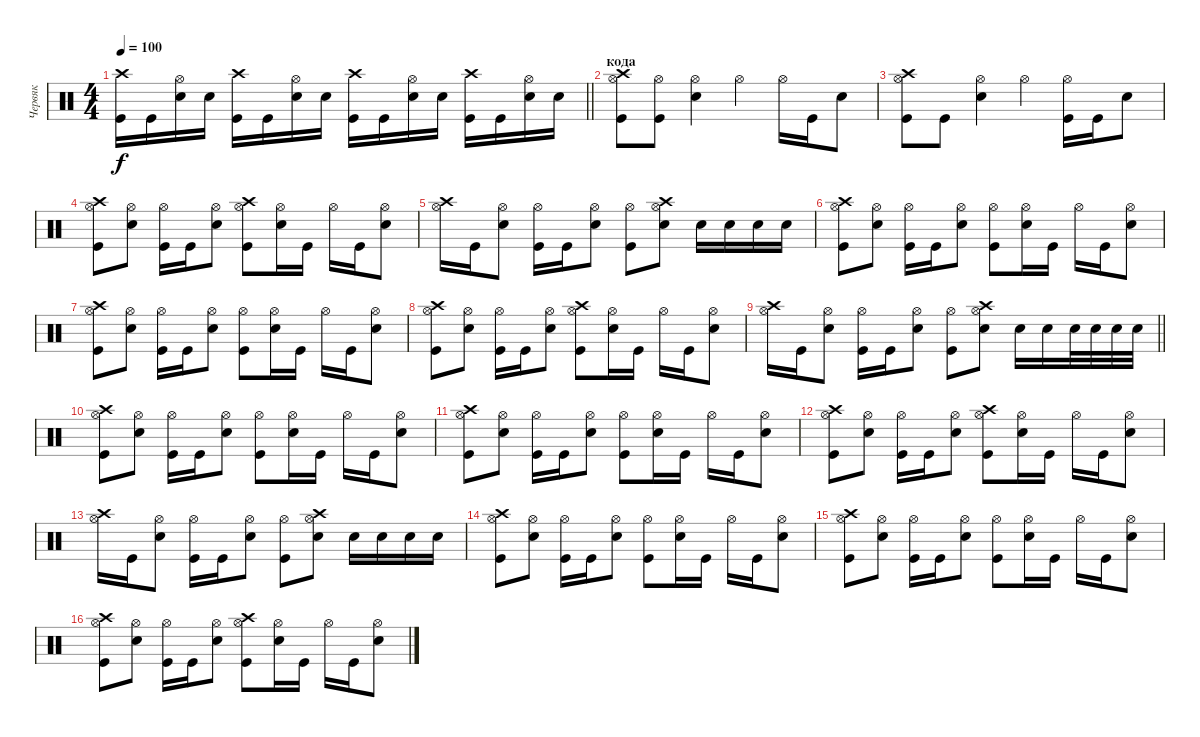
\track ("Червяк" "Червяк") {instrument percussion}
\staff {score}
\articulation defaults
\ts (4 4)
\tempo 100
\clef neutral
\barLineRight lightlight
\ks c
("Crash high (hit)" "Kick (hit)").16{dy f} "Kick (hit)".16 ("Hi-Hat (open)" "Electric Snare (hit)").16 "Electric Snare (hit)".16 ("Crash high (hit)" "Kick (hit)").16 "Kick (hit)".16 ("Hi-Hat (open)" "Electric Snare (hit)").16 "Electric Snare (hit)".16 ("Crash high (hit)" "Kick (hit)").16 "Kick (hit)".16 ("Hi-Hat (open)" "Electric Snare (hit)").16 "Electric Snare (hit)".16 ("Crash high (hit)" "Kick (hit)").16 "Kick (hit)".16 ("Hi-Hat (open)" "Electric Snare (hit)").16 "Electric Snare (hit)".16 |
\section ("" "кода")
("Hi-Hat (open)" "Crash high (hit)" "Kick (hit)").8 ("Hi-Hat (open)" "Kick (hit)").8 ("Hi-Hat (open)" "Electric Snare (hit)").4 "Hi-Hat (open)".4 "Hi-Hat (open)".16 "Kick (hit)".16 "Electric Snare (hit)".8 |
("Hi-Hat (open)" "Crash high (hit)" "Kick (hit)").8 "Kick (hit)".8 ("Hi-Hat (open)" "Electric Snare (hit)").4 "Hi-Hat (open)".4 ("Hi-Hat (open)" "Kick (hit)").16 "Kick (hit)".16 "Electric Snare (hit)".8 |
("Hi-Hat (open)" "Crash high (hit)" "Kick (hit)").8 ("Hi-Hat (open)" "Electric Snare (hit)").8 ("Hi-Hat (open)" "Kick (hit)").16 "Kick (hit)".16 ("Hi-Hat (open)" "Electric Snare (hit)").8 ("Hi-Hat (open)" "Crash high (hit)" "Kick (hit)").8 ("Hi-Hat (open)" "Electric Snare (hit)").16 "Kick (hit)".16 "Hi-Hat (open)".16 "Kick (hit)".16 ("Hi-Hat (open)" "Electric Snare (hit)").8 |
("Hi-Hat (open)" "Crash high (hit)").16 "Kick (hit)".16 ("Hi-Hat (open)" "Electric Snare (hit)").8 ("Hi-Hat (open)" "Kick (hit)").16 "Kick (hit)".16 ("Hi-Hat (open)" "Electric Snare (hit)").8 ("Hi-Hat (open)" "Kick (hit)").8 ("Hi-Hat (open)" "Crash high (hit)" "Electric Snare (hit)").8 "Snare (hit) 2".16 "Electric Snare (hit)".16 "Electric Snare (hit)".16 "Electric Snare (hit)".16 |
("Hi-Hat (open)" "Crash high (hit)" "Kick (hit)").8 ("Hi-Hat (open)" "Electric Snare (hit)").8 ("Hi-Hat (open)" "Kick (hit)").16 "Kick (hit)".16 ("Hi-Hat (open)" "Electric Snare (hit)").8 ("Hi-Hat (open)" "Kick (hit)").8 ("Hi-Hat (open)" "Electric Snare (hit)").16 "Kick (hit)".16 "Hi-Hat (open)".16 "Kick (hit)".16 ("Hi-Hat (open)" "Electric Snare (hit)").8 |
("Hi-Hat (open)" "Crash high (hit)" "Kick (hit)").8 ("Hi-Hat (open)" "Electric Snare (hit)").8 ("Hi-Hat (open)" "Kick (hit)").16 "Kick (hit)".16 ("Hi-Hat (open)" "Electric Snare (hit)").8 ("Hi-Hat (open)" "Kick (hit)").8 ("Hi-Hat (open)" "Electric Snare (hit)").16 "Kick (hit)".16 "Hi-Hat (open)".16 "Kick (hit)".16 ("Hi-Hat (open)" "Electric Snare (hit)").8 |
("Hi-Hat (open)" "Crash high (hit)" "Kick (hit)").8 ("Hi-Hat (open)" "Electric Snare (hit)").8 ("Hi-Hat (open)" "Kick (hit)").16 "Kick (hit)".16 ("Hi-Hat (open)" "Electric Snare (hit)").8 ("Hi-Hat (open)" "Crash high (hit)" "Kick (hit)").8 ("Hi-Hat (open)" "Electric Snare (hit)").16 "Kick (hit)".16 "Hi-Hat (open)".16 "Kick (hit)".16 ("Hi-Hat (open)" "Electric Snare (hit)").8 |
\barLineRight lightlight
("Hi-Hat (open)" "Crash high (hit)").16 "Kick (hit)".16 ("Hi-Hat (open)" "Electric Snare (hit)").8 ("Hi-Hat (open)" "Kick (hit)").16 "Kick (hit)".16 ("Hi-Hat (open)" "Electric Snare (hit)").8 ("Hi-Hat (open)" "Kick (hit)").8 ("Hi-Hat (open)" "Crash high (hit)" "Electric Snare (hit)").8 "Electric Snare (hit)".16 "Electric Snare (hit)".16 "Electric Snare (hit)".32 "Electric Snare (hit)".32 "Electric Snare (hit)".32 "Electric Snare (hit)".32 |
("Hi-Hat (open)" "Crash high (hit)" "Kick (hit)").8 ("Hi-Hat (open)" "Electric Snare (hit)").8 ("Hi-Hat (open)" "Kick (hit)").16 "Kick (hit)".16 ("Hi-Hat (open)" "Electric Snare (hit)").8 ("Hi-Hat (open)" "Kick (hit)").8 ("Hi-Hat (open)" "Electric Snare (hit)").16 "Kick (hit)".16 "Hi-Hat (open)".16 "Kick (hit)".16 ("Hi-Hat (open)" "Electric Snare (hit)").8 |
("Hi-Hat (open)" "Crash high (hit)" "Kick (hit)").8 ("Hi-Hat (open)" "Electric Snare (hit)").8 ("Hi-Hat (open)" "Kick (hit)").16 "Kick (hit)".16 ("Hi-Hat (open)" "Electric Snare (hit)").8 ("Hi-Hat (open)" "Kick (hit)").8 ("Hi-Hat (open)" "Electric Snare (hit)").16 "Kick (hit)".16 "Hi-Hat (open)".16 "Kick (hit)".16 ("Hi-Hat (open)" "Electric Snare (hit)").8 |
("Hi-Hat (open)" "Crash high (hit)" "Kick (hit)").8 ("Hi-Hat (open)" "Electric Snare (hit)").8 ("Hi-Hat (open)" "Kick (hit)").16 "Kick (hit)".16 ("Hi-Hat (open)" "Electric Snare (hit)").8 ("Hi-Hat (open)" "Crash high (hit)" "Kick (hit)").8 ("Hi-Hat (open)" "Electric Snare (hit)").16 "Kick (hit)".16 "Hi-Hat (open)".16 "Kick (hit)".16 ("Hi-Hat (open)" "Electric Snare (hit)").8 |
("Hi-Hat (open)" "Crash high (hit)").16 "Kick (hit)".16 ("Hi-Hat (open)" "Electric Snare (hit)").8 ("Hi-Hat (open)" "Kick (hit)").16 "Kick (hit)".16 ("Hi-Hat (open)" "Electric Snare (hit)").8 ("Hi-Hat (open)" "Kick (hit)").8 ("Hi-Hat (open)" "Crash high (hit)" "Electric Snare (hit)").8 "Snare (hit) 2".16 "Electric Snare (hit)".16 "Electric Snare (hit)".16 "Electric Snare (hit)".16 |
("Hi-Hat (open)" "Crash high (hit)" "Kick (hit)").8 ("Hi-Hat (open)" "Electric Snare (hit)").8 ("Hi-Hat (open)" "Kick (hit)").16 "Kick (hit)".16 ("Hi-Hat (open)" "Electric Snare (hit)").8 ("Hi-Hat (open)" "Kick (hit)").8 ("Hi-Hat (open)" "Electric Snare (hit)").16 "Kick (hit)".16 "Hi-Hat (open)".16 "Kick (hit)".16 ("Hi-Hat (open)" "Electric Snare (hit)").8 |
("Hi-Hat (open)" "Crash high (hit)" "Kick (hit)").8 ("Hi-Hat (open)" "Electric Snare (hit)").8 ("Hi-Hat (open)" "Kick (hit)").16 "Kick (hit)".16 ("Hi-Hat (open)" "Electric Snare (hit)").8 ("Hi-Hat (open)" "Kick (hit)").8 ("Hi-Hat (open)" "Electric Snare (hit)").16 "Kick (hit)".16 "Hi-Hat (open)".16 "Kick (hit)".16 ("Hi-Hat (open)" "Electric Snare (hit)").8 |
("Hi-Hat (open)" "Crash high (hit)" "Kick (hit)").8 ("Hi-Hat (open)" "Electric Snare (hit)").8 ("Hi-Hat (open)" "Kick (hit)").16 "Kick (hit)".16 ("Hi-Hat (open)" "Electric Snare (hit)").8 ("Hi-Hat (open)" "Crash high (hit)" "Kick (hit)").8 ("Hi-Hat (open)" "Electric Snare (hit)").16 "Kick (hit)".16 "Hi-Hat (open)".16 "Kick (hit)".16 ("Hi-Hat (open)" "Electric Snare (hit)").8
